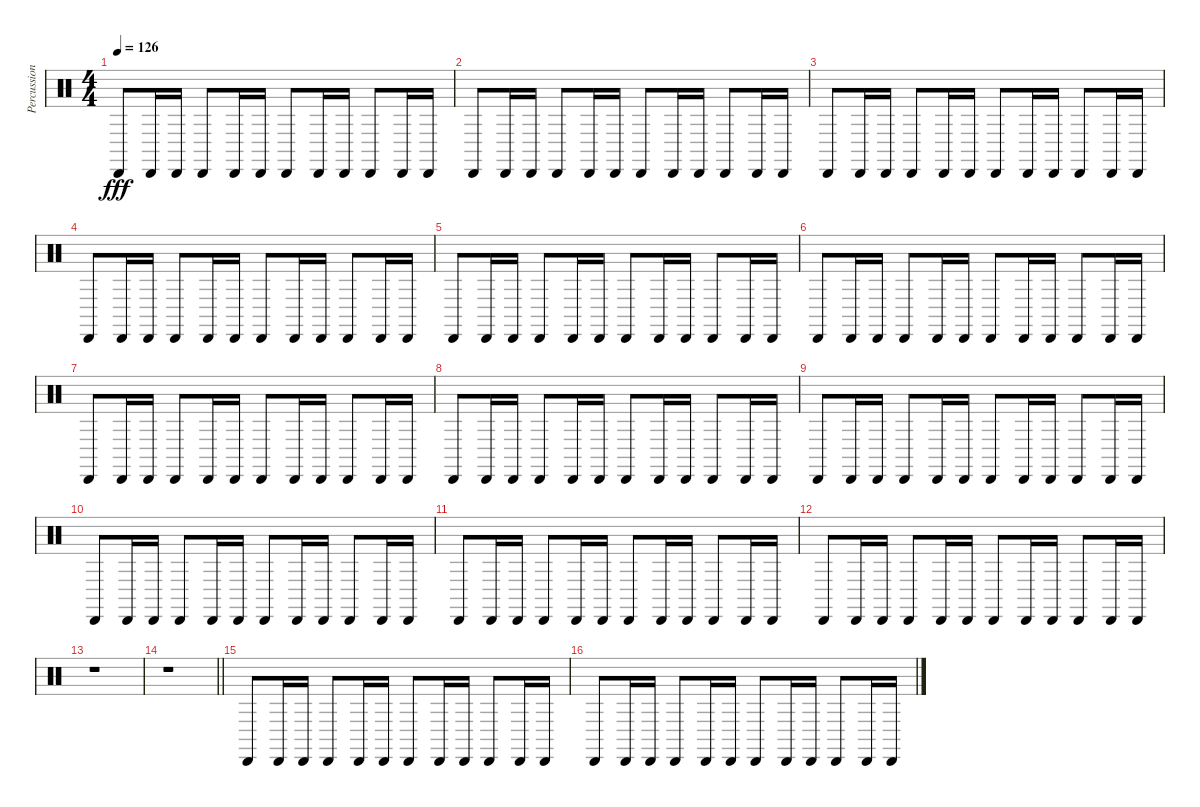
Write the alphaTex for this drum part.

\track ("Percussions" "Percussion") {instrument percussion}
\staff {score}
\articulation defaults
\ts (4 4)
\tempo 126
\clef neutral
\ks c "Cabasa (hit)".8{dy fff} "Cabasa (hit)".16 "Cabasa (hit)".16 "Cabasa (hit)".8 "Cabasa (hit)".16 "Cabasa (hit)".16 "Cabasa (hit)".8 "Cabasa (hit)".16 "Cabasa (hit)".16 "Cabasa (hit)".8 "Cabasa (hit)".16 "Cabasa (hit)".16
|
"Cabasa (hit)".8 "Cabasa (hit)".16 "Cabasa (hit)".16 "Cabasa (hit)".8 "Cabasa (hit)".16 "Cabasa (hit)".16 "Cabasa (hit)".8 "Cabasa (hit)".16 "Cabasa (hit)".16 "Cabasa (hit)".8 "Cabasa (hit)".16 "Cabasa (hit)".16 |
"Cabasa (hit)".8 "Cabasa (hit)".16 "Cabasa (hit)".16 "Cabasa (hit)".8 "Cabasa (hit)".16 "Cabasa (hit)".16 "Cabasa (hit)".8 "Cabasa (hit)".16 "Cabasa (hit)".16 "Cabasa (hit)".8 "Cabasa (hit)".16 "Cabasa (hit)".16 |
"Cabasa (hit)".8 "Cabasa (hit)".16 "Cabasa (hit)".16 "Cabasa (hit)".8 "Cabasa (hit)".16 "Cabasa (hit)".16 "Cabasa (hit)".8 "Cabasa (hit)".16 "Cabasa (hit)".16 "Cabasa (hit)".8 "Cabasa (hit)".16 "Cabasa (hit)".16 |
"Cabasa (hit)".8 "Cabasa (hit)".16 "Cabasa (hit)".16 "Cabasa (hit)".8 "Cabasa (hit)".16 "Cabasa (hit)".16 "Cabasa (hit)".8 "Cabasa (hit)".16 "Cabasa (hit)".16 "Cabasa (hit)".8 "Cabasa (hit)".16 "Cabasa (hit)".16 |
"Cabasa (hit)".8 "Cabasa (hit)".16 "Cabasa (hit)".16 "Cabasa (hit)".8 "Cabasa (hit)".16 "Cabasa (hit)".16 "Cabasa (hit)".8 "Cabasa (hit)".16 "Cabasa (hit)".16 "Cabasa (hit)".8 "Cabasa (hit)".16 "Cabasa (hit)".16 |
"Cabasa (hit)".8 "Cabasa (hit)".16 "Cabasa (hit)".16 "Cabasa (hit)".8 "Cabasa (hit)".16 "Cabasa (hit)".16 "Cabasa (hit)".8 "Cabasa (hit)".16 "Cabasa (hit)".16 "Cabasa (hit)".8 "Cabasa (hit)".16 "Cabasa (hit)".16 |
"Cabasa (hit)".8 "Cabasa (hit)".16 "Cabasa (hit)".16 "Cabasa (hit)".8 "Cabasa (hit)".16 "Cabasa (hit)".16 "Cabasa (hit)".8 "Cabasa (hit)".16 "Cabasa (hit)".16 "Cabasa (hit)".8 "Cabasa (hit)".16 "Cabasa (hit)".16 |
"Cabasa (hit)".8 "Cabasa (hit)".16 "Cabasa (hit)".16 "Cabasa (hit)".8 "Cabasa (hit)".16 "Cabasa (hit)".16 "Cabasa (hit)".8 "Cabasa (hit)".16 "Cabasa (hit)".16 "Cabasa (hit)".8 "Cabasa (hit)".16 "Cabasa (hit)".16 |
"Cabasa (hit)".8 "Cabasa (hit)".16 "Cabasa (hit)".16 "Cabasa (hit)".8 "Cabasa (hit)".16 "Cabasa (hit)".16 "Cabasa (hit)".8 "Cabasa (hit)".16 "Cabasa (hit)".16 "Cabasa (hit)".8 "Cabasa (hit)".16 "Cabasa (hit)".16 |
"Cabasa (hit)".8 "Cabasa (hit)".16 "Cabasa (hit)".16 "Cabasa (hit)".8 "Cabasa (hit)".16 "Cabasa (hit)".16 "Cabasa (hit)".8 "Cabasa (hit)".16 "Cabasa (hit)".16 "Cabasa (hit)".8 "Cabasa (hit)".16 "Cabasa (hit)".16 |
"Cabasa (hit)".8 "Cabasa (hit)".16 "Cabasa (hit)".16 "Cabasa (hit)".8 "Cabasa (hit)".16 "Cabasa (hit)".16 "Cabasa (hit)".8 "Cabasa (hit)".16 "Cabasa (hit)".16 "Cabasa (hit)".8 "Cabasa (hit)".16 "Cabasa (hit)".16 |
r.1 |
\barLineRight lightlight
r.1 |
"Cabasa (hit)".8 "Cabasa (hit)".16 "Cabasa (hit)".16 "Cabasa (hit)".8 "Cabasa (hit)".16 "Cabasa (hit)".16 "Cabasa (hit)".8 "Cabasa (hit)".16 "Cabasa (hit)".16 "Cabasa (hit)".8 "Cabasa (hit)".16 "Cabasa (hit)".16 |
"Cabasa (hit)".8 "Cabasa (hit)".16 "Cabasa (hit)".16 "Cabasa (hit)".8 "Cabasa (hit)".16 "Cabasa (hit)".16 "Cabasa (hit)".8 "Cabasa (hit)".16 "Cabasa (hit)".16 "Cabasa (hit)".8 "Cabasa (hit)".16 "Cabasa (hit)".16
